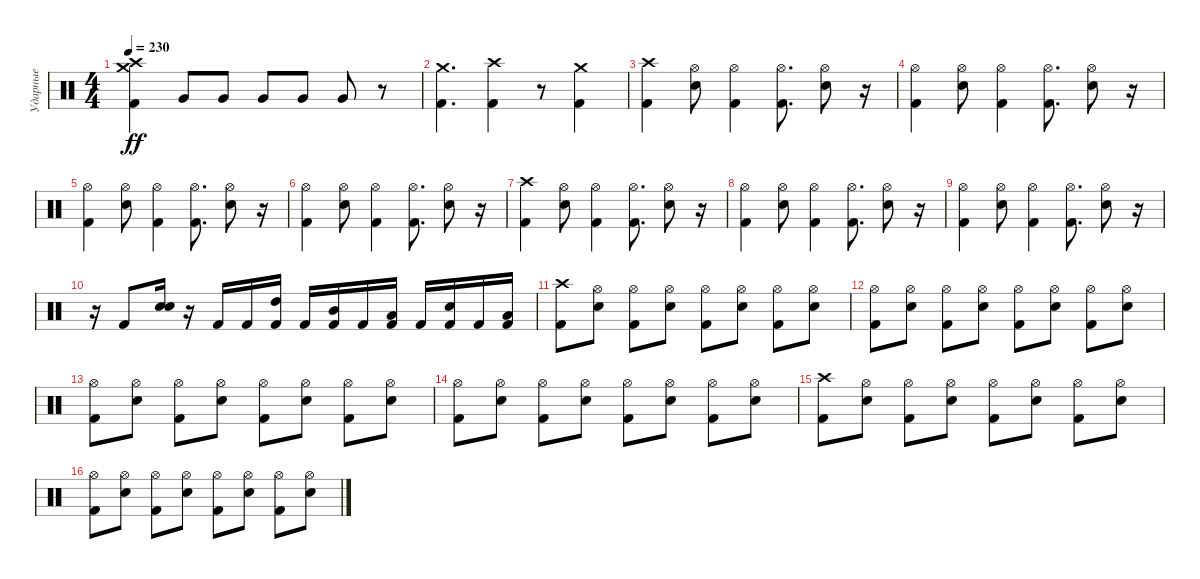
\track ("Ударные" "Ударные") {instrument percussion}
\staff {score}
\articulation defaults
\ts (4 4)
\tempo 230
\clef neutral
\ks c
("Crash high (hit)" "Crash medium (hit)" "Kick (hit) 2").4{dy ff} "Very Low Tom (hit)".8 "Very Low Tom (hit)".8 "Very Low Tom (hit)".8 "Very Low Tom (hit)".8 "Very Low Tom (hit)".8 r.8 |
("Crash medium (hit)" "Kick (hit) 2").4{d} ("Crash high (hit)" "Kick (hit) 2").4 r.8 ("Crash medium (hit)" "Kick (hit) 2").4 |
("Kick (hit) 2" "Crash high (hit)").4 ("Snare (hit) 2" "Hi-Hat (open)").8 ("Kick (hit) 2" "Hi-Hat (open)").4 ("Kick (hit) 2" "Hi-Hat (open)").8{d} ("Snare (hit) 2" "Hi-Hat (open)").8 r.16 |
("Kick (hit) 2" "Hi-Hat (open)").4 ("Snare (hit) 2" "Hi-Hat (open)").8 ("Kick (hit) 2" "Hi-Hat (open)").4 ("Kick (hit) 2" "Hi-Hat (open)").8{d} ("Snare (hit) 2" "Hi-Hat (open)").8 r.16 |
("Kick (hit) 2" "Hi-Hat (open)").4 ("Snare (hit) 2" "Hi-Hat (open)").8 ("Kick (hit) 2" "Hi-Hat (open)").4 ("Kick (hit) 2" "Hi-Hat (open)").8{d} ("Snare (hit) 2" "Hi-Hat (open)").8 r.16 |
("Kick (hit) 2" "Hi-Hat (open)").4 ("Snare (hit) 2" "Hi-Hat (open)").8 ("Kick (hit) 2" "Hi-Hat (open)").4 ("Kick (hit) 2" "Hi-Hat (open)").8{d} ("Snare (hit) 2" "Hi-Hat (open)").8 r.16 |
("Kick (hit) 2" "Crash high (hit)").4 ("Snare (hit) 2" "Hi-Hat (open)").8 ("Kick (hit) 2" "Hi-Hat (open)").4 ("Kick (hit) 2" "Hi-Hat (open)").8{d} ("Snare (hit) 2" "Hi-Hat (open)").8 r.16 |
("Kick (hit) 2" "Hi-Hat (open)").4 ("Snare (hit) 2" "Hi-Hat (open)").8 ("Kick (hit) 2" "Hi-Hat (open)").4 ("Kick (hit) 2" "Hi-Hat (open)").8{d} ("Snare (hit) 2" "Hi-Hat (open)").8 r.16 |
("Kick (hit) 2" "Hi-Hat (open)").4 ("Snare (hit) 2" "Hi-Hat (open)").8 ("Kick (hit) 2" "Hi-Hat (open)").4 ("Kick (hit) 2" "Hi-Hat (open)").8{d} ("Snare (hit) 2" "Hi-Hat (open)").8 r.16 |
r.16 "Kick (hit) 2".8 ("Electric Snare (hit)" "Snare (hit) 2").16 r.16 "Kick (hit) 2".16 "Kick (hit) 2".16 ("High Tom (hit)" "Kick (hit) 2").16 "Kick (hit) 2".16 ("Mid Tom (hit)" "Kick (hit) 2").16 "Kick (hit) 2".16 ("Low Tom (hit)" "Kick (hit) 2").16 "Kick (hit) 2".16 ("Electric Snare (hit)" "Kick (hit) 2").16 "Kick (hit) 2".16 ("Low Floor Tom (hit)" "Kick (hit) 2").16 |
("Crash high (hit)" "Kick (hit) 2").8 ("Hi-Hat (open)" "Snare (hit) 2").8 ("Hi-Hat (open)" "Kick (hit) 2").8 ("Hi-Hat (open)" "Snare (hit) 2").8 ("Hi-Hat (open)" "Kick (hit) 2").8 ("Hi-Hat (open)" "Snare (hit) 2").8 ("Hi-Hat (open)" "Kick (hit) 2").8 ("Hi-Hat (open)" "Snare (hit) 2").8 |
("Hi-Hat (open)" "Kick (hit) 2").8 ("Hi-Hat (open)" "Snare (hit) 2").8 ("Hi-Hat (open)" "Kick (hit) 2").8 ("Hi-Hat (open)" "Snare (hit) 2").8 ("Hi-Hat (open)" "Kick (hit) 2").8 ("Hi-Hat (open)" "Snare (hit) 2").8 ("Hi-Hat (open)" "Kick (hit) 2").8 ("Hi-Hat (open)" "Snare (hit) 2").8 |
("Hi-Hat (open)" "Kick (hit) 2").8 ("Hi-Hat (open)" "Snare (hit) 2").8 ("Hi-Hat (open)" "Kick (hit) 2").8 ("Hi-Hat (open)" "Snare (hit) 2").8 ("Hi-Hat (open)" "Kick (hit) 2").8 ("Hi-Hat (open)" "Snare (hit) 2").8 ("Hi-Hat (open)" "Kick (hit) 2").8 ("Hi-Hat (open)" "Snare (hit) 2").8 |
("Hi-Hat (open)" "Kick (hit) 2").8 ("Hi-Hat (open)" "Snare (hit) 2").8 ("Hi-Hat (open)" "Kick (hit) 2").8 ("Hi-Hat (open)" "Snare (hit) 2").8 ("Hi-Hat (open)" "Kick (hit) 2").8 ("Hi-Hat (open)" "Snare (hit) 2").8 ("Hi-Hat (open)" "Kick (hit) 2").8 ("Hi-Hat (open)" "Snare (hit) 2").8 |
("Crash high (hit)" "Kick (hit) 2").8 ("Hi-Hat (open)" "Snare (hit) 2").8 ("Hi-Hat (open)" "Kick (hit) 2").8 ("Hi-Hat (open)" "Snare (hit) 2").8 ("Hi-Hat (open)" "Kick (hit) 2").8 ("Hi-Hat (open)" "Snare (hit) 2").8 ("Hi-Hat (open)" "Kick (hit) 2").8 ("Hi-Hat (open)" "Snare (hit) 2").8 |
("Hi-Hat (open)" "Kick (hit) 2").8 ("Hi-Hat (open)" "Snare (hit) 2").8 ("Hi-Hat (open)" "Kick (hit) 2").8 ("Hi-Hat (open)" "Snare (hit) 2").8 ("Hi-Hat (open)" "Kick (hit) 2").8 ("Hi-Hat (open)" "Snare (hit) 2").8 ("Hi-Hat (open)" "Kick (hit) 2").8 ("Hi-Hat (open)" "Snare (hit) 2").8
